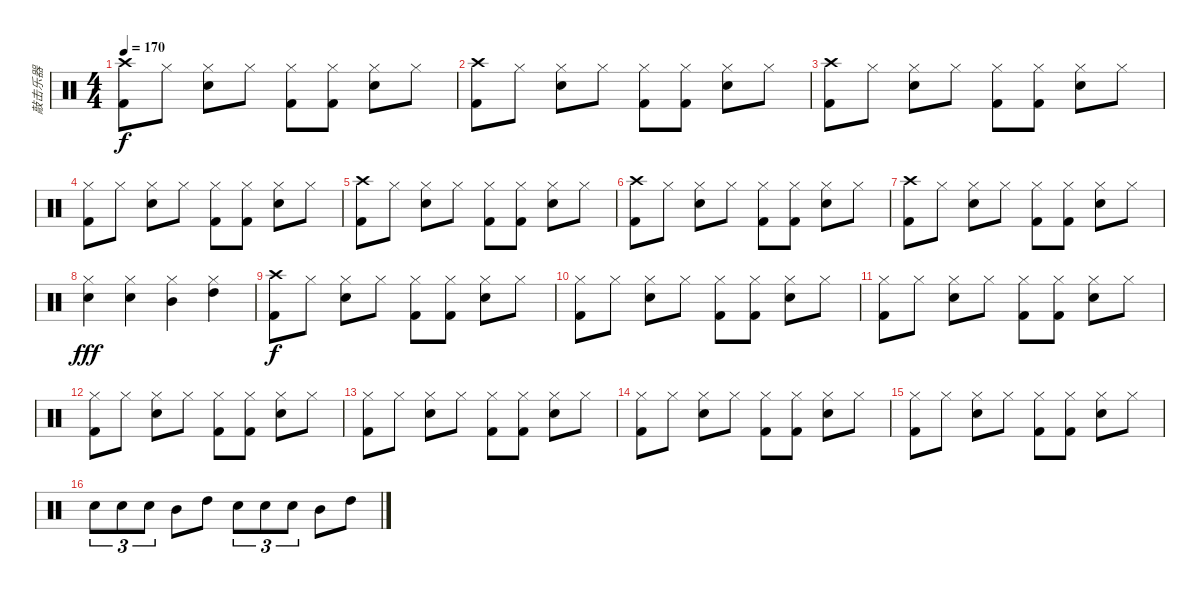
\track ("敲击乐器" "敲击乐器") {instrument percussion}
\staff {score}
\articulation defaults
\ts (4 4)
\tempo 170
\clef neutral
\ks c
("Crash high (hit)" "Kick (hit) 2").8{dy f} "Hi-Hat (closed)".8 ("Hi-Hat (closed)" "Snare (hit) 2").8 "Hi-Hat (closed)".8 ("Hi-Hat (closed)" "Kick (hit) 2").8 ("Hi-Hat (closed)" "Kick (hit) 2").8 ("Hi-Hat (closed)" "Snare (hit) 2").8 "Hi-Hat (closed)".8 |
("Crash high (hit)" "Kick (hit) 2").8 "Hi-Hat (closed)".8 ("Hi-Hat (closed)" "Snare (hit) 2").8 "Hi-Hat (closed)".8 ("Hi-Hat (closed)" "Kick (hit) 2").8 ("Hi-Hat (closed)" "Kick (hit) 2").8 ("Hi-Hat (closed)" "Snare (hit) 2").8 "Hi-Hat (closed)".8 |
("Crash high (hit)" "Kick (hit) 2").8 "Hi-Hat (closed)".8 ("Hi-Hat (closed)" "Snare (hit) 2").8 "Hi-Hat (closed)".8 ("Hi-Hat (closed)" "Kick (hit) 2").8 ("Hi-Hat (closed)" "Kick (hit) 2").8 ("Hi-Hat (closed)" "Snare (hit) 2").8 "Hi-Hat (closed)".8 |
("Hi-Hat (closed)" "Kick (hit) 2").8 "Hi-Hat (closed)".8 ("Hi-Hat (closed)" "Snare (hit) 2").8 "Hi-Hat (closed)".8 ("Hi-Hat (closed)" "Kick (hit) 2").8 ("Hi-Hat (closed)" "Kick (hit) 2").8 ("Hi-Hat (closed)" "Snare (hit) 2").8 "Hi-Hat (closed)".8 |
("Crash high (hit)" "Kick (hit) 2").8 "Hi-Hat (closed)".8 ("Hi-Hat (closed)" "Snare (hit) 2").8 "Hi-Hat (closed)".8 ("Hi-Hat (closed)" "Kick (hit) 2").8 ("Hi-Hat (closed)" "Kick (hit) 2").8 ("Hi-Hat (closed)" "Snare (hit) 2").8 "Hi-Hat (closed)".8 |
("Crash high (hit)" "Kick (hit) 2").8 "Hi-Hat (closed)".8 ("Hi-Hat (closed)" "Snare (hit) 2").8 "Hi-Hat (closed)".8 ("Hi-Hat (closed)" "Kick (hit) 2").8 ("Hi-Hat (closed)" "Kick (hit) 2").8 ("Hi-Hat (closed)" "Snare (hit) 2").8 "Hi-Hat (closed)".8 |
("Crash high (hit)" "Kick (hit) 2").8 "Hi-Hat (closed)".8 ("Hi-Hat (closed)" "Snare (hit) 2").8 "Hi-Hat (closed)".8 ("Hi-Hat (closed)" "Kick (hit) 2").8 ("Hi-Hat (closed)" "Kick (hit) 2").8 ("Hi-Hat (closed)" "Snare (hit) 2").8 "Hi-Hat (closed)".8 |
("Hi-Hat (closed)" "Snare (hit) 2").4{dy fff} ("Hi-Hat (closed)" "Snare (hit) 2").4 ("Hi-Hat (closed)" "Mid Tom (hit)").4 ("Hi-Hat (closed)" "High Tom (hit)").4 |
("Crash high (hit)" "Kick (hit) 2").8{dy f} "Hi-Hat (closed)".8 ("Hi-Hat (closed)" "Snare (hit) 2").8 "Hi-Hat (closed)".8 ("Hi-Hat (closed)" "Kick (hit) 2").8 ("Hi-Hat (closed)" "Kick (hit) 2").8 ("Hi-Hat (closed)" "Snare (hit) 2").8 "Hi-Hat (closed)".8 |
("Hi-Hat (closed)" "Kick (hit) 2").8 "Hi-Hat (closed)".8 ("Hi-Hat (closed)" "Snare (hit) 2").8 "Hi-Hat (closed)".8 ("Hi-Hat (closed)" "Kick (hit) 2").8 ("Hi-Hat (closed)" "Kick (hit) 2").8 ("Hi-Hat (closed)" "Snare (hit) 2").8 "Hi-Hat (closed)".8 |
("Hi-Hat (closed)" "Kick (hit) 2").8 "Hi-Hat (closed)".8 ("Hi-Hat (closed)" "Snare (hit) 2").8 "Hi-Hat (closed)".8 ("Hi-Hat (closed)" "Kick (hit) 2").8 ("Hi-Hat (closed)" "Kick (hit) 2").8 ("Hi-Hat (closed)" "Snare (hit) 2").8 "Hi-Hat (closed)".8 |
("Hi-Hat (closed)" "Kick (hit) 2").8 "Hi-Hat (closed)".8 ("Hi-Hat (closed)" "Snare (hit) 2").8 "Hi-Hat (closed)".8 ("Hi-Hat (closed)" "Kick (hit) 2").8 ("Hi-Hat (closed)" "Kick (hit) 2").8 ("Hi-Hat (closed)" "Snare (hit) 2").8 "Hi-Hat (closed)".8 |
("Hi-Hat (closed)" "Kick (hit) 2").8 "Hi-Hat (closed)".8 ("Hi-Hat (closed)" "Snare (hit) 2").8 "Hi-Hat (closed)".8 ("Hi-Hat (closed)" "Kick (hit) 2").8 ("Hi-Hat (closed)" "Kick (hit) 2").8 ("Hi-Hat (closed)" "Snare (hit) 2").8 "Hi-Hat (closed)".8 |
("Hi-Hat (closed)" "Kick (hit) 2").8 "Hi-Hat (closed)".8 ("Hi-Hat (closed)" "Snare (hit) 2").8 "Hi-Hat (closed)".8 ("Hi-Hat (closed)" "Kick (hit) 2").8 ("Hi-Hat (closed)" "Kick (hit) 2").8 ("Hi-Hat (closed)" "Snare (hit) 2").8 "Hi-Hat (closed)".8 |
("Hi-Hat (closed)" "Kick (hit) 2").8 "Hi-Hat (closed)".8 ("Hi-Hat (closed)" "Snare (hit) 2").8 "Hi-Hat (closed)".8 ("Hi-Hat (closed)" "Kick (hit) 2").8 ("Hi-Hat (closed)" "Kick (hit) 2").8 ("Hi-Hat (closed)" "Snare (hit) 2").8 "Hi-Hat (closed)".8 |
"Snare (hit) 2".8{tu (3 2)} "Snare (hit) 2".8{tu (3 2)} "Snare (hit) 2".8{tu (3 2)} "Mid Tom (hit)".8 "High Tom (hit)".8 "Snare (hit) 2".8{tu (3 2)} "Snare (hit) 2".8{tu (3 2)} "Snare (hit) 2".8{tu (3 2)} "Mid Tom (hit)".8 "High Tom (hit)".8
